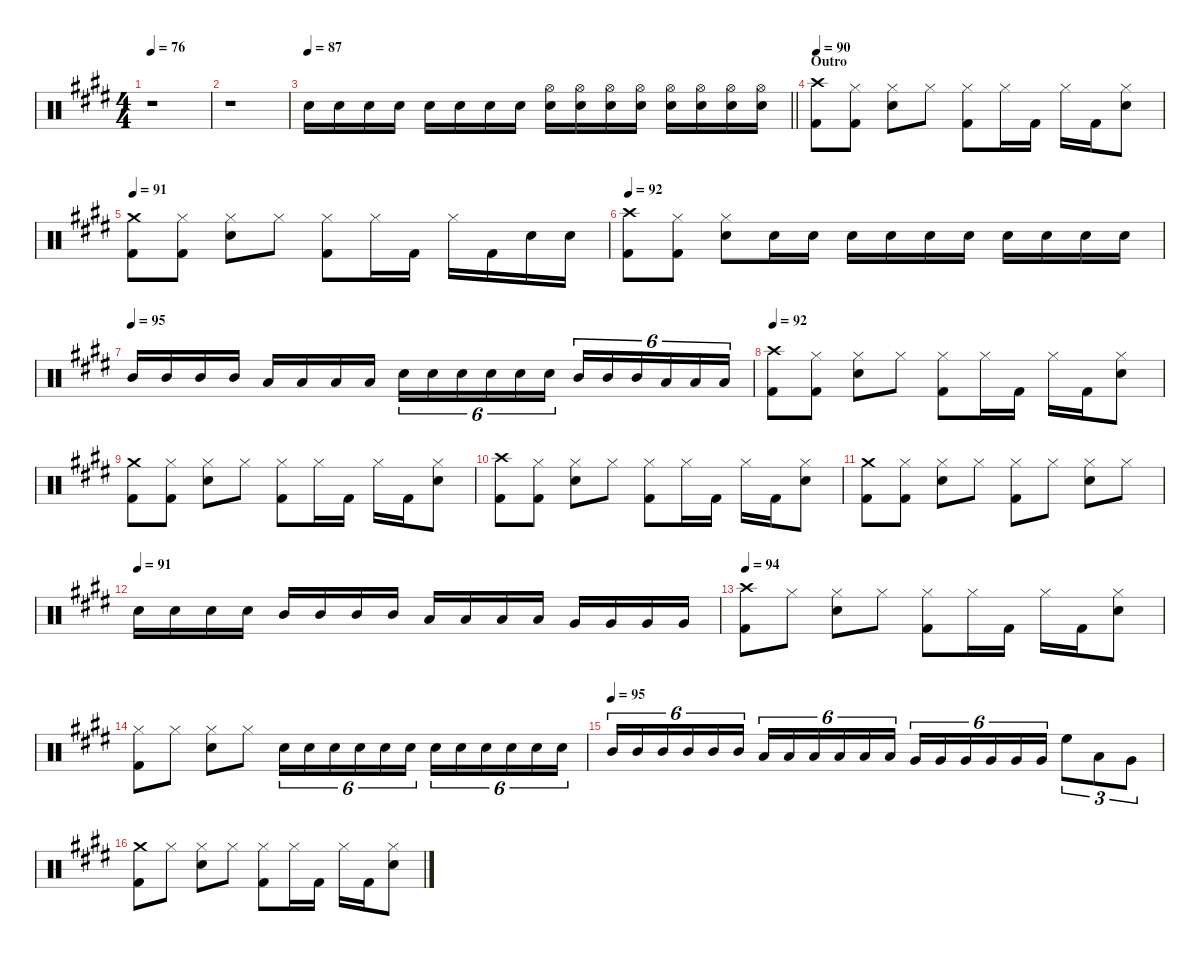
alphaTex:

\defaultSystemsLayout 4
\hideDynamics
\bracketExtendMode nobrackets
\singleTrackTrackNamePolicy hidden
\multiTrackTrackNamePolicy hidden
\firstSystemTrackNameMode fullname
\firstSystemTrackNameOrientation horizontal
\otherSystemsTrackNameOrientation horizontal
\track ("Drums" "drm.") {defaultSystemsLayout 4 instrument percussion}
\staff {score}
\articulation defaults
\ts (4 4)
\tempo 76
\clef neutral
\ks e
r.1{dy mf beam Down} |
r.1{beam Down} |
\tempo 87
\barLineRight lightlight "Snare (hit) 2"{acc forcenatural}.16{dy f beam Down} "Snare (hit) 2"{acc forcenatural}.16{beam Down} "Snare (hit) 2"{acc forcenatural}.16{beam Down} "Snare (hit) 2"{acc forcenatural}.16{beam Down} "Snare (hit) 2"{acc forcenatural}.16{beam Down} "Snare (hit) 2"{acc forcenatural}.16{beam Down} "Snare (hit) 2"{acc forcenatural}.16{beam Down} "Snare (hit) 2"{acc forcenatural}.16{beam Down}
("Hi-Hat (open)"{acc forcenatural} "Snare (hit) 2"{acc forcenatural}).16{dy ppp beam Down} ("Hi-Hat (open)"{acc forcenatural} "Snare (hit) 2"{acc forcenatural}).16{beam Down} ("Hi-Hat (open)"{acc forcenatural} "Snare (hit) 2"{acc forcenatural}).16{dy pp beam Down} ("Hi-Hat (open)"{acc forcenatural} "Snare (hit) 2"{acc forcenatural}).16{beam Down} ("Hi-Hat (open)"{acc forcenatural} "Snare (hit) 2"{acc forcenatural}).16{dy p beam Down} ("Hi-Hat (open)"{acc forcenatural} "Snare (hit) 2"{acc forcenatural}).16{beam Down} ("Hi-Hat (open)"{acc forcenatural} "Snare (hit) 2"{acc forcenatural}).16{dy mp beam Down} ("Hi-Hat (open)"{acc forcenatural} "Snare (hit) 2"{acc forcenatural}).16{beam Down} |
\section ("" "Outro")
\tempo 90
("Crash high (hit)"{acc forcenatural} "Kick (hit) 2"{acc forcenatural}).8{dy mf beam Down} ("Hi-Hat (closed)"{acc forcenatural} "Kick (hit) 2"{acc forcenatural}).8{beam Down} ("Hi-Hat (closed)"{acc forcenatural} "Snare (hit) 2"{acc forcenatural}).8{beam Down} "Hi-Hat (closed)"{acc forcenatural}.8{beam Down} ("Hi-Hat (closed)"{acc forcenatural} "Kick (hit) 2"{acc forcenatural}).8{beam Down} "Hi-Hat (closed)"{acc forcenatural}.16{beam Down} "Kick (hit) 2"{acc forcenatural}.16{dy f beam Down} "Hi-Hat (closed)"{acc forcenatural}.16{dy mf beam Down} "Kick (hit) 2"{acc forcenatural}.16{dy f beam Down} ("Hi-Hat (closed)"{acc forcenatural} "Snare (hit) 2"{acc forcenatural}).8{dy mf beam Down} |
\tempo 91
("Crash medium (hit)"{acc forcenatural} "Kick (hit) 2"{acc forcenatural}).8{beam Down} ("Hi-Hat (closed)"{acc forcenatural} "Kick (hit) 2"{acc forcenatural}).8{beam Down} ("Hi-Hat (closed)"{acc forcenatural} "Snare (hit) 2"{acc forcenatural}).8{beam Down} "Hi-Hat (closed)"{acc forcenatural}.8{beam Down} ("Hi-Hat (closed)"{acc forcenatural} "Kick (hit) 2"{acc forcenatural}).8{beam Down} "Hi-Hat (closed)"{acc forcenatural}.16{beam Down} "Kick (hit) 2"{acc forcenatural}.16{dy f beam Down} "Hi-Hat (closed)"{acc forcenatural}.16{dy mf beam Down} "Kick (hit) 2"{acc forcenatural}.16{dy f beam Down} "Snare (hit) 2"{acc forcenatural}.16{beam Down} "Snare (hit) 2"{acc forcenatural}.16{beam Down} |
\tempo 92
("Crash high (hit)"{acc forcenatural} "Kick (hit) 2"{acc forcenatural}).8{dy mf beam Down} ("Hi-Hat (closed)"{acc forcenatural} "Kick (hit) 2"{acc forcenatural}).8{beam Down} ("Hi-Hat (closed)"{acc forcenatural} "Snare (hit) 2"{acc forcenatural}).8{beam Down} "Snare (hit) 2"{acc forcenatural}.16{dy f beam Down} "Snare (hit) 2"{acc forcenatural}.16{beam Down} "Snare (hit) 2"{acc forcenatural}.16{beam Down} "Snare (hit) 2"{acc forcenatural}.16{beam Down} "Snare (hit) 2"{acc forcenatural}.16{beam Down} "Snare (hit) 2"{acc forcenatural}.16{beam Down} "Snare (hit) 2"{acc forcenatural}.16{beam Down} "Snare (hit) 2"{acc forcenatural}.16{beam Down} "Snare (hit) 2"{acc forcenatural}.16{beam Down} "Snare (hit) 2"{acc forcenatural}.16{beam Down} |
\tempo (95)
"Mid Tom (hit)"{acc forcenatural}.16{beam Up} "Mid Tom (hit)"{acc forcenatural}.16{beam Up} "Mid Tom (hit)"{acc forcenatural}.16{beam Up} "Mid Tom (hit)"{acc forcenatural}.16{beam Up} "Low Tom (hit)"{acc forcenatural}.16{beam Up} "Low Tom (hit)"{acc forcenatural}.16{beam Up} "Low Tom (hit)"{acc forcenatural}.16{beam Up} "Low Tom (hit)"{acc forcenatural}.16{beam Up} "Snare (hit) 2"{acc forcenatural}.16{tu (6 4) beam Down} "Snare (hit) 2"{acc forcenatural}.16{tu (6 4) beam Down} "Snare (hit) 2"{acc forcenatural}.16{tu (6 4) beam Down} "Snare (hit) 2"{acc forcenatural}.16{tu (6 4) beam Down} "Snare (hit) 2"{acc forcenatural}.16{tu (6 4) beam Down} "Snare (hit) 2"{acc forcenatural}.16{tu (6 4) beam Down} "Mid Tom (hit)"{acc forcenatural}.16{tu (6 4) beam Up} "Mid Tom (hit)"{acc forcenatural}.16{tu (6 4) beam Up} "Mid Tom (hit)"{acc forcenatural}.16{tu (6 4) beam Up} "Low Tom (hit)"{acc forcenatural}.16{tu (6 4) beam Up} "Low Tom (hit)"{acc forcenatural}.16{tu (6 4) beam Up} "Low Tom (hit)"{acc forcenatural}.16{tu (6 4) beam Up} |
\tempo 92
("Crash high (hit)"{acc forcenatural} "Kick (hit) 2"{acc forcenatural}).8{dy mf beam Down} ("Hi-Hat (closed)"{acc forcenatural} "Kick (hit) 2"{acc forcenatural}).8{beam Down} ("Hi-Hat (closed)"{acc forcenatural} "Snare (hit) 2"{acc forcenatural}).8{beam Down} "Hi-Hat (closed)"{acc forcenatural}.8{beam Down} ("Hi-Hat (closed)"{acc forcenatural} "Kick (hit) 2"{acc forcenatural}).8{beam Down} "Hi-Hat (closed)"{acc forcenatural}.16{beam Down} "Kick (hit) 2"{acc forcenatural}.16{dy f beam Down} "Hi-Hat (closed)"{acc forcenatural}.16{dy mf beam Down} "Kick (hit) 2"{acc forcenatural}.16{dy f beam Down} ("Hi-Hat (closed)"{acc forcenatural} "Snare (hit) 2"{acc forcenatural}).8{dy mf beam Down} |
("Crash medium (hit)"{acc forcenatural} "Kick (hit) 2"{acc forcenatural}).8{beam Down} ("Hi-Hat (closed)"{acc forcenatural} "Kick (hit) 2"{acc forcenatural}).8{beam Down} ("Hi-Hat (closed)"{acc forcenatural} "Snare (hit) 2"{acc forcenatural}).8{beam Down} "Hi-Hat (closed)"{acc forcenatural}.8{beam Down} ("Hi-Hat (closed)"{acc forcenatural} "Kick (hit) 2"{acc forcenatural}).8{beam Down} "Hi-Hat (closed)"{acc forcenatural}.16{beam Down} "Kick (hit) 2"{acc forcenatural}.16{dy f beam Down} "Hi-Hat (closed)"{acc forcenatural}.16{dy mf beam Down} "Kick (hit) 2"{acc forcenatural}.16{dy f beam Down} ("Hi-Hat (closed)"{acc forcenatural} "Snare (hit) 2"{acc forcenatural}).8{dy mf beam Down} |
("Crash high (hit)"{acc forcenatural} "Kick (hit) 2"{acc forcenatural}).8{beam Down} ("Hi-Hat (closed)"{acc forcenatural} "Kick (hit) 2"{acc forcenatural}).8{beam Down} ("Hi-Hat (closed)"{acc forcenatural} "Snare (hit) 2"{acc forcenatural}).8{beam Down} "Hi-Hat (closed)"{acc forcenatural}.8{beam Down} ("Hi-Hat (closed)"{acc forcenatural} "Kick (hit) 2"{acc forcenatural}).8{beam Down} "Hi-Hat (closed)"{acc forcenatural}.16{beam Down} "Kick (hit) 2"{acc forcenatural}.16{dy f beam Down} "Hi-Hat (closed)"{acc forcenatural}.16{dy mf beam Down} "Kick (hit) 2"{acc forcenatural}.16{dy f beam Down} ("Hi-Hat (closed)"{acc forcenatural} "Snare (hit) 2"{acc forcenatural}).8{dy mf beam Down} |
("Crash medium (hit)"{acc forcenatural} "Kick (hit) 2"{acc forcenatural}).8{beam Down} ("Hi-Hat (closed)"{acc forcenatural} "Kick (hit) 2"{acc forcenatural}).8{beam Down} ("Hi-Hat (closed)"{acc forcenatural} "Snare (hit) 2"{acc forcenatural}).8{beam Down} "Hi-Hat (closed)"{acc forcenatural}.8{beam Down} ("Hi-Hat (closed)"{acc forcenatural} "Kick (hit) 2"{acc forcenatural}).8{beam Down} "Hi-Hat (closed)"{acc forcenatural}.8{beam Down} ("Hi-Hat (closed)"{acc forcenatural} "Snare (hit) 2"{acc forcenatural}).8{beam Down} "Hi-Hat (closed)"{acc forcenatural}.8{beam Down} |
\tempo (91)
"Snare (hit) 2"{acc forcenatural}.16{dy f beam Down} "Snare (hit) 2"{acc forcenatural}.16{beam Down} "Snare (hit) 2"{acc forcenatural}.16{beam Down} "Snare (hit) 2"{acc forcenatural}.16{beam Down} "Mid Tom (hit)"{acc forcenatural}.16{beam Up} "Mid Tom (hit)"{acc forcenatural}.16{beam Up} "Mid Tom (hit)"{acc forcenatural}.16{beam Up} "Mid Tom (hit)"{acc forcenatural}.16{beam Up} "Low Tom (hit)"{acc forcenatural}.16{beam Up} "Low Tom (hit)"{acc forcenatural}.16{beam Up} "Low Tom (hit)"{acc forcenatural}.16{beam Up} "Low Tom (hit)"{acc forcenatural}.16{beam Up} "Very Low Tom (hit)"{acc forcenatural}.16{beam Up} "Very Low Tom (hit)"{acc forcenatural}.16{beam Up} "Very Low Tom (hit)"{acc forcenatural}.16{beam Up} "Very Low Tom (hit)"{acc forcenatural}.16{beam Up} |
\tempo 94
("Crash high (hit)"{acc forcenatural} "Kick (hit) 2"{acc forcenatural}).8{dy mf beam Down} "Hi-Hat (closed)"{acc forcenatural}.8{beam Down} ("Hi-Hat (closed)"{acc forcenatural} "Snare (hit) 2"{acc forcenatural}).8{beam Down} "Hi-Hat (closed)"{acc forcenatural}.8{beam Down} ("Hi-Hat (closed)"{acc forcenatural} "Kick (hit) 2"{acc forcenatural}).8{beam Down} "Hi-Hat (closed)"{acc forcenatural}.16{dy f beam Down} "Kick (hit) 2"{acc forcenatural}.16{beam Down} "Hi-Hat (closed)"{acc forcenatural}.16{dy mf beam Down} "Kick (hit) 2"{acc forcenatural}.16{dy f beam Down} ("Hi-Hat (closed)"{acc forcenatural} "Snare (hit) 2"{acc forcenatural}).8{dy mf beam Down} |
("Hi-Hat (closed)"{acc forcenatural} "Kick (hit) 2"{acc forcenatural}).8{beam Down} "Hi-Hat (closed)"{acc forcenatural}.8{beam Down} ("Hi-Hat (closed)"{acc forcenatural} "Snare (hit) 2"{acc forcenatural}).8{beam Down} "Hi-Hat (closed)"{acc forcenatural}.8{beam Down} "Snare (hit) 2"{acc forcenatural}.16{tu (6 4) dy f beam Down} "Snare (hit) 2"{acc forcenatural}.16{tu (6 4) beam Down} "Snare (hit) 2"{acc forcenatural}.16{tu (6 4) beam Down} "Snare (hit) 2"{acc forcenatural}.16{tu (6 4) beam Down} "Snare (hit) 2"{acc forcenatural}.16{tu (6 4) beam Down} "Snare (hit) 2"{acc forcenatural}.16{tu (6 4) beam Down} "Snare (hit) 2"{acc forcenatural}.16{tu (6 4) beam Down} "Snare (hit) 2"{acc forcenatural}.16{tu (6 4) beam Down} "Snare (hit) 2"{acc forcenatural}.16{tu (6 4) beam Down} "Snare (hit) 2"{acc forcenatural}.16{tu (6 4) beam Down} "Snare (hit) 2"{acc forcenatural}.16{tu (6 4) beam Down} "Snare (hit) 2"{acc forcenatural}.16{tu (6 4) beam Down} |
\tempo (95)
"Mid Tom (hit)"{acc forcenatural}.16{tu (6 4) beam Up} "Mid Tom (hit)"{acc forcenatural}.16{tu (6 4) beam Up} "Mid Tom (hit)"{acc forcenatural}.16{tu (6 4) beam Up} "Mid Tom (hit)"{acc forcenatural}.16{tu (6 4) beam Up} "Mid Tom (hit)"{acc forcenatural}.16{tu (6 4) beam Up} "Mid Tom (hit)"{acc forcenatural}.16{tu (6 4) beam Up} "Low Tom (hit)"{acc forcenatural}.16{tu (6 4) beam Up} "Low Tom (hit)"{acc forcenatural}.16{tu (6 4) beam Up} "Low Tom (hit)"{acc forcenatural}.16{tu (6 4) beam Up} "Low Tom (hit)"{acc forcenatural}.16{tu (6 4) beam Up} "Low Tom (hit)"{acc forcenatural}.16{tu (6 4) beam Up} "Low Tom (hit)"{acc forcenatural}.16{tu (6 4) beam Up} "Very Low Tom (hit)"{acc forcenatural}.16{tu (6 4) beam Up} "Very Low Tom (hit)"{acc forcenatural}.16{tu (6 4) beam Up} "Very Low Tom (hit)"{acc forcenatural}.16{tu (6 4) beam Up} "Very Low Tom (hit)"{acc forcenatural}.16{tu (6 4) beam Up} "Very Low Tom (hit)"{acc forcenatural}.16{tu (6 4) beam Up} "Very Low Tom (hit)"{acc forcenatural}.16{tu (6 4) beam Up} "High Floor Tom (hit)"{acc forcenatural}.8{tu (3 2) beam Down} "Low Tom (hit)"{acc forcenatural}.8{tu (3 2) beam Down} "Very Low Tom (hit)"{acc forcenatural}.8{tu (3 2) beam Down} |
("Crash medium (hit)"{acc forcenatural} "Kick (hit) 2"{acc forcenatural}).8{dy mf beam Down} "Hi-Hat (closed)"{acc forcenatural}.8{beam Down} ("Hi-Hat (closed)"{acc forcenatural} "Snare (hit) 2"{acc forcenatural}).8{beam Down} "Hi-Hat (closed)"{acc forcenatural}.8{beam Down} ("Hi-Hat (closed)"{acc forcenatural} "Kick (hit) 2"{acc forcenatural}).8{beam Down} "Hi-Hat (closed)"{acc forcenatural}.16{beam Down} "Kick (hit) 2"{acc forcenatural}.16{dy f beam Down} "Hi-Hat (closed)"{acc forcenatural}.16{dy mf beam Down} "Kick (hit) 2"{acc forcenatural}.16{dy f beam Down} ("Hi-Hat (closed)"{acc forcenatural} "Snare (hit) 2"{acc forcenatural}).8{dy mf beam Down}
